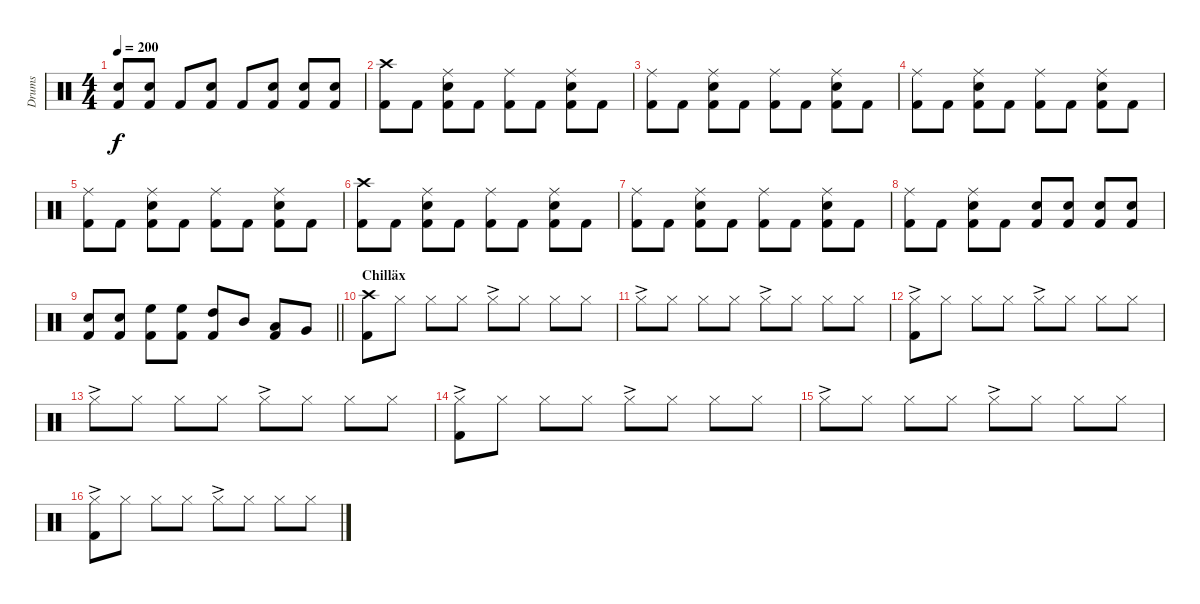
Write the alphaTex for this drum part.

\track ("Drums" "Drums") {instrument percussion}
\staff {score}
\articulation defaults
\ts (4 4)
\tempo 200
\clef neutral
\ks c
("Snare (hit) 2" "Kick (hit) 2").8{dy f} ("Snare (hit) 2" "Kick (hit) 2").8 "Kick (hit) 2".8 ("Snare (hit) 2" "Kick (hit) 2").8 "Kick (hit) 2".8 ("Snare (hit) 2" "Kick (hit) 2").8 ("Snare (hit) 2" "Kick (hit) 2").8 ("Snare (hit) 2" "Kick (hit) 2").8 |
("Crash high (hit)" "Kick (hit) 2").8 "Kick (hit) 2".8 ("Ride (middle)" "Snare (hit) 2" "Kick (hit) 2").8 "Kick (hit) 2".8 ("Ride (middle)" "Kick (hit) 2").8 "Kick (hit) 2".8 ("Ride (middle)" "Snare (hit) 2" "Kick (hit) 2").8 "Kick (hit) 2".8 |
("Ride (middle)" "Kick (hit) 2").8 "Kick (hit) 2".8 ("Ride (middle)" "Snare (hit) 2" "Kick (hit) 2").8 "Kick (hit) 2".8 ("Ride (middle)" "Kick (hit) 2").8 "Kick (hit) 2".8 ("Ride (middle)" "Snare (hit) 2" "Kick (hit) 2").8 "Kick (hit) 2".8 |
("Ride (middle)" "Kick (hit) 2").8 "Kick (hit) 2".8 ("Ride (middle)" "Snare (hit) 2" "Kick (hit) 2").8 "Kick (hit) 2".8 ("Ride (middle)" "Kick (hit) 2").8 "Kick (hit) 2".8 ("Ride (middle)" "Snare (hit) 2" "Kick (hit) 2").8 "Kick (hit) 2".8 |
("Ride (middle)" "Kick (hit) 2").8 "Kick (hit) 2".8 ("Ride (middle)" "Snare (hit) 2" "Kick (hit) 2").8 "Kick (hit) 2".8 ("Ride (middle)" "Kick (hit) 2").8 "Kick (hit) 2".8 ("Ride (middle)" "Snare (hit) 2" "Kick (hit) 2").8 "Kick (hit) 2".8 |
("Crash high (hit)" "Kick (hit) 2").8 "Kick (hit) 2".8 ("Ride (middle)" "Snare (hit) 2" "Kick (hit) 2").8 "Kick (hit) 2".8 ("Ride (middle)" "Kick (hit) 2").8 "Kick (hit) 2".8 ("Ride (middle)" "Snare (hit) 2" "Kick (hit) 2").8 "Kick (hit) 2".8 |
("Ride (middle)" "Kick (hit) 2").8 "Kick (hit) 2".8 ("Ride (middle)" "Snare (hit) 2" "Kick (hit) 2").8 "Kick (hit) 2".8 ("Ride (middle)" "Kick (hit) 2").8 "Kick (hit) 2".8 ("Ride (middle)" "Snare (hit) 2" "Kick (hit) 2").8 "Kick (hit) 2".8 |
("Ride (middle)" "Kick (hit) 2").8 "Kick (hit) 2".8 ("Ride (middle)" "Snare (hit) 2" "Kick (hit) 2").8 "Kick (hit) 2".8 ("Snare (hit) 2" "Kick (hit) 2").8 ("Snare (hit) 2" "Kick (hit) 2").8 ("Snare (hit) 2" "Kick (hit) 2").8 ("Snare (hit) 2" "Kick (hit) 2").8 |
\barLineRight lightlight
("Electric Snare (hit)" "Kick (hit) 2").8 ("Electric Snare (hit)" "Kick (hit) 2").8 ("High Floor Tom (hit)" "Kick (hit) 2").8 ("High Floor Tom (hit)" "Kick (hit) 2").8 ("High Tom (hit)" "Kick (hit) 2").8 "Mid Tom (hit)".8 ("Low Tom (hit)" "Kick (hit) 2").8 "Very Low Tom (hit)".8 |
\section ("" "Chilläx")
("Crash high (hit)" "Kick (hit) 2").8 "Hi-Hat (closed)".8 "Hi-Hat (closed)".8 "Hi-Hat (closed)".8 "Hi-Hat (closed)"{ac}.8 "Hi-Hat (closed)".8 "Hi-Hat (closed)".8 "Hi-Hat (closed)".8 |
"Hi-Hat (closed)"{ac}.8 "Hi-Hat (closed)".8 "Hi-Hat (closed)".8 "Hi-Hat (closed)".8 "Hi-Hat (closed)"{ac}.8 "Hi-Hat (closed)".8 "Hi-Hat (closed)".8 "Hi-Hat (closed)".8 |
("Hi-Hat (closed)"{ac} "Kick (hit) 2").8 "Hi-Hat (closed)".8 "Hi-Hat (closed)".8 "Hi-Hat (closed)".8 "Hi-Hat (closed)"{ac}.8 "Hi-Hat (closed)".8 "Hi-Hat (closed)".8 "Hi-Hat (closed)".8 |
"Hi-Hat (closed)"{ac}.8 "Hi-Hat (closed)".8 "Hi-Hat (closed)".8 "Hi-Hat (closed)".8 "Hi-Hat (closed)"{ac}.8 "Hi-Hat (closed)".8 "Hi-Hat (closed)".8 "Hi-Hat (closed)".8 |
("Hi-Hat (closed)"{ac} "Kick (hit) 2").8 "Hi-Hat (closed)".8 "Hi-Hat (closed)".8 "Hi-Hat (closed)".8 "Hi-Hat (closed)"{ac}.8 "Hi-Hat (closed)".8 "Hi-Hat (closed)".8 "Hi-Hat (closed)".8 |
"Hi-Hat (closed)"{ac}.8 "Hi-Hat (closed)".8 "Hi-Hat (closed)".8 "Hi-Hat (closed)".8 "Hi-Hat (closed)"{ac}.8 "Hi-Hat (closed)".8 "Hi-Hat (closed)".8 "Hi-Hat (closed)".8 |
("Hi-Hat (closed)"{ac} "Kick (hit) 2").8 "Hi-Hat (closed)".8 "Hi-Hat (closed)".8 "Hi-Hat (closed)".8 "Hi-Hat (closed)"{ac}.8 "Hi-Hat (closed)".8 "Hi-Hat (closed)".8 "Hi-Hat (closed)".8
